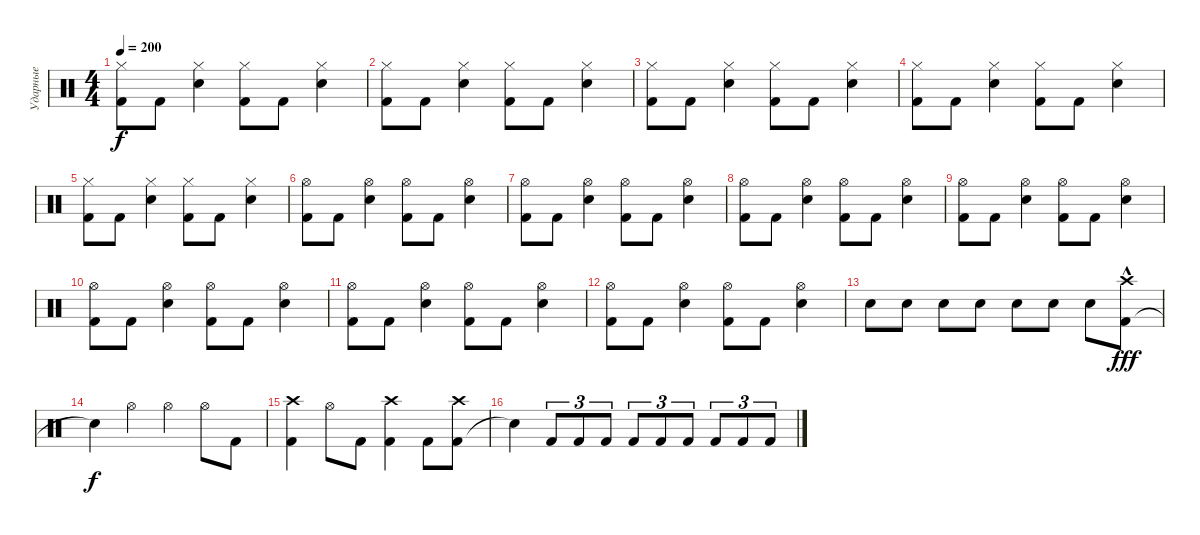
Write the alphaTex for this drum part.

\track ("Ударные" "Ударные") {instrument percussion}
\staff {score}
\articulation defaults
\ts (4 4)
\tempo 200
\clef neutral
\ks c
("Kick (hit) 2" "Hi-Hat (closed)").8{dy f} "Kick (hit) 2".8 ("Snare (hit) 2" "Hi-Hat (closed)").4 ("Kick (hit) 2" "Hi-Hat (closed)").8 "Kick (hit) 2".8 ("Snare (hit) 2" "Hi-Hat (closed)").4 |
("Kick (hit) 2" "Hi-Hat (closed)").8 "Kick (hit) 2".8 ("Snare (hit) 2" "Hi-Hat (closed)").4 ("Kick (hit) 2" "Hi-Hat (closed)").8 "Kick (hit) 2".8 ("Snare (hit) 2" "Hi-Hat (closed)").4 |
("Kick (hit) 2" "Hi-Hat (closed)").8 "Kick (hit) 2".8 ("Snare (hit) 2" "Hi-Hat (closed)").4 ("Kick (hit) 2" "Hi-Hat (closed)").8 "Kick (hit) 2".8 ("Snare (hit) 2" "Hi-Hat (closed)").4 |
("Kick (hit) 2" "Hi-Hat (closed)").8 "Kick (hit) 2".8 ("Snare (hit) 2" "Hi-Hat (closed)").4 ("Kick (hit) 2" "Hi-Hat (closed)").8 "Kick (hit) 2".8 ("Snare (hit) 2" "Hi-Hat (closed)").4 |
("Kick (hit) 2" "Hi-Hat (closed)").8 "Kick (hit) 2".8 ("Snare (hit) 2" "Hi-Hat (closed)").4 ("Kick (hit) 2" "Hi-Hat (closed)").8 "Kick (hit) 2".8 ("Snare (hit) 2" "Hi-Hat (closed)").4 |
("Kick (hit) 2" "Hi-Hat (open)").8 "Kick (hit) 2".8 ("Snare (hit) 2" "Hi-Hat (open)").4 ("Kick (hit) 2" "Hi-Hat (open)").8 "Kick (hit) 2".8 ("Snare (hit) 2" "Hi-Hat (open)").4 |
("Kick (hit) 2" "Hi-Hat (open)").8 "Kick (hit) 2".8 ("Snare (hit) 2" "Hi-Hat (open)").4 ("Kick (hit) 2" "Hi-Hat (open)").8 "Kick (hit) 2".8 ("Snare (hit) 2" "Hi-Hat (open)").4 |
("Kick (hit) 2" "Hi-Hat (open)").8 "Kick (hit) 2".8 ("Snare (hit) 2" "Hi-Hat (open)").4 ("Kick (hit) 2" "Hi-Hat (open)").8 "Kick (hit) 2".8 ("Snare (hit) 2" "Hi-Hat (open)").4 |
("Kick (hit) 2" "Hi-Hat (open)").8 "Kick (hit) 2".8 ("Snare (hit) 2" "Hi-Hat (open)").4 ("Kick (hit) 2" "Hi-Hat (open)").8 "Kick (hit) 2".8 ("Snare (hit) 2" "Hi-Hat (open)").4 |
("Kick (hit) 2" "Hi-Hat (open)").8 "Kick (hit) 2".8 ("Snare (hit) 2" "Hi-Hat (open)").4 ("Kick (hit) 2" "Hi-Hat (open)").8 "Kick (hit) 2".8 ("Snare (hit) 2" "Hi-Hat (open)").4 |
("Kick (hit) 2" "Hi-Hat (open)").8 "Kick (hit) 2".8 ("Snare (hit) 2" "Hi-Hat (open)").4 ("Kick (hit) 2" "Hi-Hat (open)").8 "Kick (hit) 2".8 ("Snare (hit) 2" "Hi-Hat (open)").4 |
("Kick (hit) 2" "Hi-Hat (open)").8 "Kick (hit) 2".8 ("Snare (hit) 2" "Hi-Hat (open)").4 ("Kick (hit) 2" "Hi-Hat (open)").8 "Kick (hit) 2".8 ("Snare (hit) 2" "Hi-Hat (open)").4 |
"Snare (hit) 2".8 "Snare (hit) 2".8 "Snare (hit) 2".8 "Snare (hit) 2".8 "Snare (hit) 2".8 "Snare (hit) 2".8 "Snare (hit) 2".8 ("Kick (hit) 2" "Crash high (hit)"{hac}).8{dy fff} |
"Snare (hit)"{t}.4{dy f} "Hi-Hat (open)".4 "Hi-Hat (open)".4 "Hi-Hat (open)".8 "Kick (hit) 2".8 |
("Kick (hit) 2" "Crash high (hit)").4 "Hi-Hat (open)".8 "Kick (hit) 2".8 ("Kick (hit) 2" "Crash high (hit)").4 "Kick (hit) 2".8 ("Kick (hit) 2" "Crash high (hit)").8 |
"Snare (hit)"{t}.4 "Kick (hit) 2".8{tu (3 2)} "Kick (hit) 2".8{tu (3 2)} "Kick (hit) 2".8{tu (3 2)} "Kick (hit) 2".8{tu (3 2)} "Kick (hit) 2".8{tu (3 2)} "Kick (hit) 2".8{tu (3 2)} "Kick (hit) 2".8{tu (3 2)} "Kick (hit) 2".8{tu (3 2)} "Kick (hit) 2".8{tu (3 2)}
